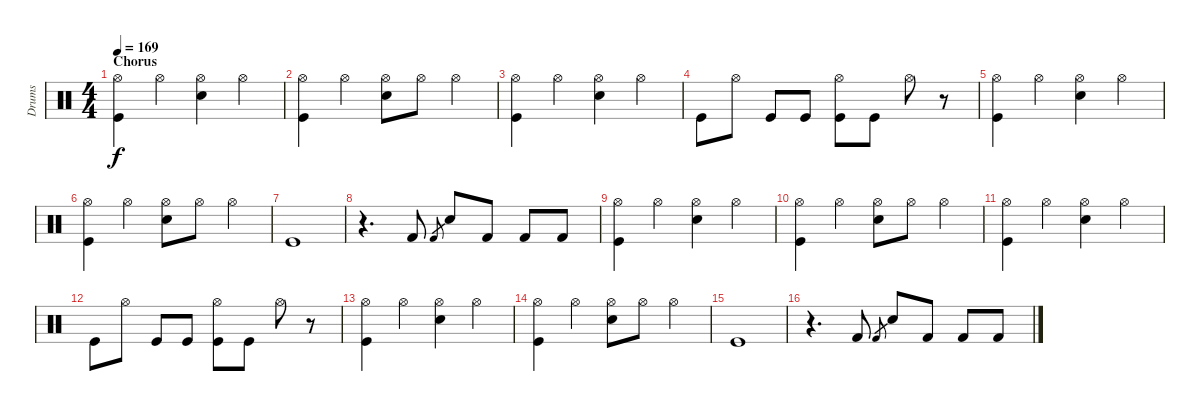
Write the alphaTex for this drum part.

\track ("Drums" "Drums") {instrument percussion}
\staff {score}
\articulation defaults
\ts (4 4)
\section ("" "Chorus")
\tempo 169
\clef neutral
\ks c
("Hi-Hat (open)" "Kick (hit)").4{dy f} "Hi-Hat (open)".4 ("Hi-Hat (open)" "Snare (hit) 2").4 "Hi-Hat (open)".4 |
("Hi-Hat (open)" "Kick (hit)").4 "Hi-Hat (open)".4 ("Hi-Hat (open)" "Snare (hit) 2").8 "Hi-Hat (open)".8 "Hi-Hat (open)".4 |
("Hi-Hat (open)" "Kick (hit)").4 "Hi-Hat (open)".4 ("Hi-Hat (open)" "Snare (hit) 2").4 "Hi-Hat (open)".4 |
"Kick (hit)".8 "Hi-Hat (open)".8 "Kick (hit)".8 "Kick (hit)".8 ("Hi-Hat (open)" "Kick (hit)").8 "Kick (hit)".8 "Hi-Hat (open)".8 r.8 |
("Hi-Hat (open)" "Kick (hit)").4 "Hi-Hat (open)".4 ("Hi-Hat (open)" "Snare (hit) 2").4 "Hi-Hat (open)".4 |
("Hi-Hat (open)" "Kick (hit)").4 "Hi-Hat (open)".4 ("Hi-Hat (open)" "Snare (hit) 2").8 "Hi-Hat (open)".8 "Hi-Hat (open)".4 |
"Kick (hit)".1 |
r.4{d} "Kick (hit) 2".8 "Kick (hit) 2".8{gr} "Snare (hit) 2".8 "Kick (hit) 2".8 "Kick (hit) 2".8 "Kick (hit) 2".8 |
("Hi-Hat (open)" "Kick (hit)").4 "Hi-Hat (open)".4 ("Hi-Hat (open)" "Snare (hit) 2").4 "Hi-Hat (open)".4 |
("Hi-Hat (open)" "Kick (hit)").4 "Hi-Hat (open)".4 ("Hi-Hat (open)" "Snare (hit) 2").8 "Hi-Hat (open)".8 "Hi-Hat (open)".4 |
("Hi-Hat (open)" "Kick (hit)").4 "Hi-Hat (open)".4 ("Hi-Hat (open)" "Snare (hit) 2").4 "Hi-Hat (open)".4 |
"Kick (hit)".8 "Hi-Hat (open)".8 "Kick (hit)".8 "Kick (hit)".8 ("Hi-Hat (open)" "Kick (hit)").8 "Kick (hit)".8 "Hi-Hat (open)".8 r.8 |
("Hi-Hat (open)" "Kick (hit)").4 "Hi-Hat (open)".4 ("Hi-Hat (open)" "Snare (hit) 2").4 "Hi-Hat (open)".4 |
("Hi-Hat (open)" "Kick (hit)").4 "Hi-Hat (open)".4 ("Hi-Hat (open)" "Snare (hit) 2").8 "Hi-Hat (open)".8 "Hi-Hat (open)".4 |
"Kick (hit)".1 |
r.4{d} "Kick (hit) 2".8 "Kick (hit) 2".8{gr} "Snare (hit) 2".8 "Kick (hit) 2".8 "Kick (hit) 2".8 "Kick (hit) 2".8
